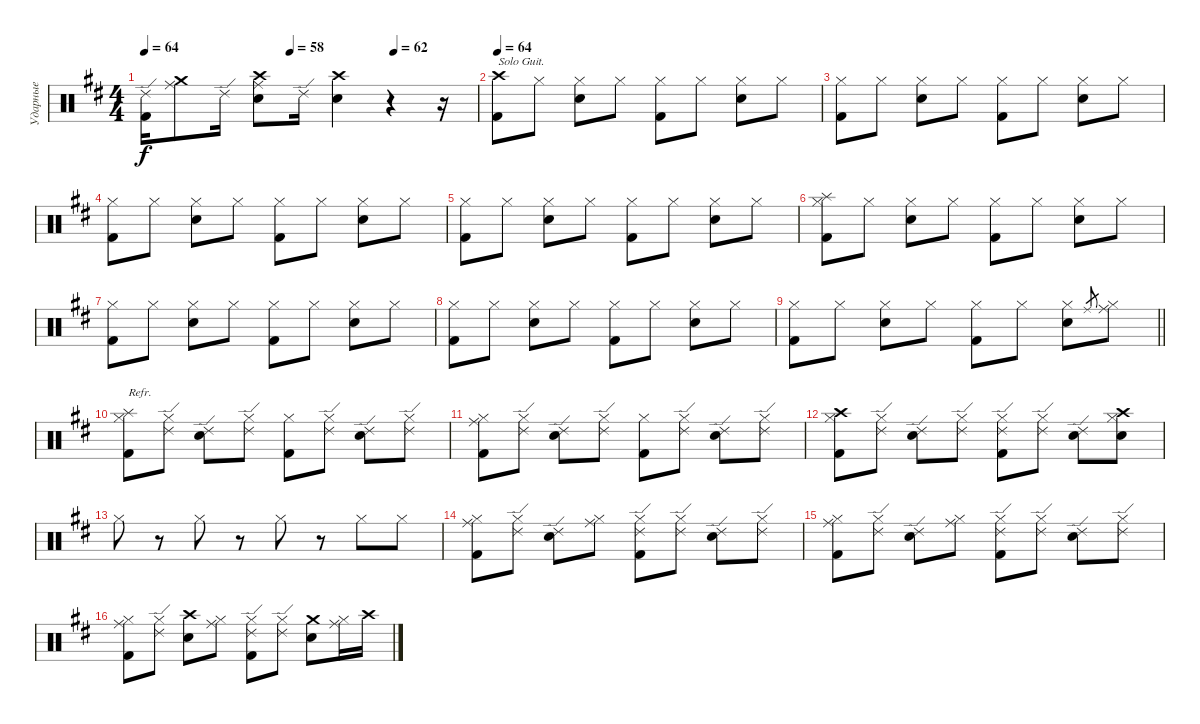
\track ("Ударные" "Ударные") {instrument percussion}
\staff {score}
\articulation defaults
\ts (4 4)
\tempo 64
\tempo (62 0.75)
\tempo (58 0.4375)
\clef neutral
\ks d
("Ride (edge) 2" "Kick (hit) 2").16{dy f} ("Ride (middle)" "Crash medium (hit)").8 "Ride (edge) 2".16 ("Ride (middle)" "Crash high (hit)" "Snare (hit) 2").8 "Ride (edge) 2".16 ("Crash high (hit)" "Snare (hit) 2").4 r.4 r.16 |
\tempo 64
("Crash high (hit)" "Kick (hit) 2").8{txt "Solo Guit."} "Hi-Hat (closed)".8 ("Hi-Hat (closed)" "Snare (hit) 2").8 "Hi-Hat (closed)".8 ("Hi-Hat (closed)" "Kick (hit) 2").8 "Hi-Hat (closed)".8 ("Hi-Hat (closed)" "Snare (hit) 2").8 "Hi-Hat (closed)".8 |
("Hi-Hat (closed)" "Kick (hit) 2").8 "Hi-Hat (closed)".8 ("Hi-Hat (closed)" "Snare (hit) 2").8 "Hi-Hat (closed)".8 ("Hi-Hat (closed)" "Kick (hit) 2").8 "Hi-Hat (closed)".8 ("Hi-Hat (closed)" "Snare (hit) 2").8 "Hi-Hat (closed)".8 |
("Hi-Hat (closed)" "Kick (hit) 2").8 "Hi-Hat (closed)".8 ("Hi-Hat (closed)" "Snare (hit) 2").8 "Hi-Hat (closed)".8 ("Hi-Hat (closed)" "Kick (hit) 2").8 "Hi-Hat (closed)".8 ("Hi-Hat (closed)" "Snare (hit) 2").8 "Hi-Hat (closed)".8 |
("Hi-Hat (closed)" "Kick (hit) 2").8 "Hi-Hat (closed)".8 ("Hi-Hat (closed)" "Snare (hit) 2").8 "Hi-Hat (closed)".8 ("Hi-Hat (closed)" "Kick (hit) 2").8 "Hi-Hat (closed)".8 ("Hi-Hat (closed)" "Snare (hit) 2").8 "Hi-Hat (closed)".8 |
("Splash (hit)" "Hi-Hat (closed)" "Kick (hit) 2").8 "Hi-Hat (closed)".8 ("Hi-Hat (closed)" "Snare (hit) 2").8 "Hi-Hat (closed)".8 ("Hi-Hat (closed)" "Kick (hit) 2").8 "Hi-Hat (closed)".8 ("Hi-Hat (closed)" "Snare (hit) 2").8 "Hi-Hat (closed)".8 |
("Hi-Hat (closed)" "Kick (hit) 2").8 "Hi-Hat (closed)".8 ("Hi-Hat (closed)" "Snare (hit) 2").8 "Hi-Hat (closed)".8 ("Hi-Hat (closed)" "Kick (hit) 2").8 "Hi-Hat (closed)".8 ("Hi-Hat (closed)" "Snare (hit) 2").8 "Hi-Hat (closed)".8 |
("Hi-Hat (closed)" "Kick (hit) 2").8 "Hi-Hat (closed)".8 ("Hi-Hat (closed)" "Snare (hit) 2").8 "Hi-Hat (closed)".8 ("Hi-Hat (closed)" "Kick (hit) 2").8 "Hi-Hat (closed)".8 ("Hi-Hat (closed)" "Snare (hit) 2").8 "Hi-Hat (closed)".8 |
\barLineRight lightlight
("Hi-Hat (closed)" "Kick (hit) 2").8 "Hi-Hat (closed)".8 ("Hi-Hat (closed)" "Snare (hit) 2").8 "Hi-Hat (closed)".8 ("Hi-Hat (closed)" "Kick (hit) 2").8 "Hi-Hat (closed)".8 ("Hi-Hat (closed)" "Snare (hit) 2").8 "Ride (middle)".8{gr} ("Ride (middle)" "Hi-Hat (closed)").8 |
("Splash (hit)" "Hi-Hat (closed)" "Kick (hit) 2").8{txt "Refr."} ("Ride (edge) 2" "Hi-Hat (closed)").8 ("Ride (edge) 2" "Snare (hit) 2").8 ("Ride (edge) 2" "Hi-Hat (closed)").8 ("Hi-Hat (closed)" "Kick (hit) 2").8 ("Ride (edge) 2" "Hi-Hat (closed)").8 ("Ride (edge) 2" "Snare (hit) 2").8 ("Ride (edge) 2" "Hi-Hat (closed)").8 |
("Ride (middle)" "Hi-Hat (closed)" "Kick (hit) 2").8 ("Ride (edge) 2" "Hi-Hat (closed)").8 ("Ride (edge) 2" "Snare (hit) 2").8 ("Ride (edge) 2" "Hi-Hat (closed)").8 ("Hi-Hat (closed)" "Kick (hit) 2").8 ("Ride (edge) 2" "Hi-Hat (closed)").8 ("Ride (edge) 2" "Snare (hit) 2").8 ("Ride (edge) 2" "Hi-Hat (closed)").8 |
("Crash high (hit)" "Hi-Hat (closed)" "Kick (hit) 2").8 ("Ride (edge) 2" "Hi-Hat (closed)").8 ("Ride (edge) 2" "Snare (hit) 2").8 ("Ride (edge) 2" "Hi-Hat (closed)").8 ("Ride (edge) 2" "Hi-Hat (closed)" "Kick (hit) 2").8 ("Ride (edge) 2" "Hi-Hat (closed)").8 ("Ride (edge) 2" "Snare (hit) 2").8 ("Crash high (hit)" "Hi-Hat (closed)" "Snare (hit) 2").8 |
"Hi-Hat (closed)".8 r.8 "Hi-Hat (closed)".8 r.8 "Hi-Hat (closed)".8 r.8 "Hi-Hat (closed)".8 "Hi-Hat (closed)".8 |
("Ride (middle)" "Hi-Hat (closed)" "Kick (hit) 2").8 ("Ride (edge) 2" "Hi-Hat (closed)").8 ("Ride (edge) 2" "Snare (hit) 2").8 ("Ride (middle)" "Hi-Hat (closed)").8 ("Ride (edge) 2" "Hi-Hat (closed)" "Kick (hit) 2").8 ("Ride (edge) 2" "Hi-Hat (closed)").8 ("Ride (edge) 2" "Snare (hit) 2").8 ("Ride (edge) 2" "Hi-Hat (closed)").8 |
("Ride (middle)" "Hi-Hat (closed)" "Kick (hit) 2").8 ("Ride (edge) 2" "Hi-Hat (closed)").8 ("Ride (edge) 2" "Snare (hit) 2").8 ("Ride (middle)" "Hi-Hat (closed)").8 ("Ride (edge) 2" "Hi-Hat (closed)" "Kick (hit) 2").8 ("Ride (edge) 2" "Hi-Hat (closed)").8 ("Ride (edge) 2" "Snare (hit) 2").8 ("Ride (edge) 2" "Hi-Hat (closed)").8 |
("Ride (middle)" "Hi-Hat (closed)" "Kick (hit) 2").8 ("Ride (edge) 2" "Hi-Hat (closed)").8 ("Crash high (hit)" "Snare (hit) 2").8 ("Ride (middle)" "Hi-Hat (closed)").8 ("Ride (edge) 2" "Hi-Hat (closed)" "Kick (hit) 2").8 ("Ride (edge) 2" "Hi-Hat (closed)").8 ("Crash medium (hit)" "Snare (hit) 2").8 ("Ride (middle)" "Hi-Hat (closed)").16 "Crash high (hit)".16
